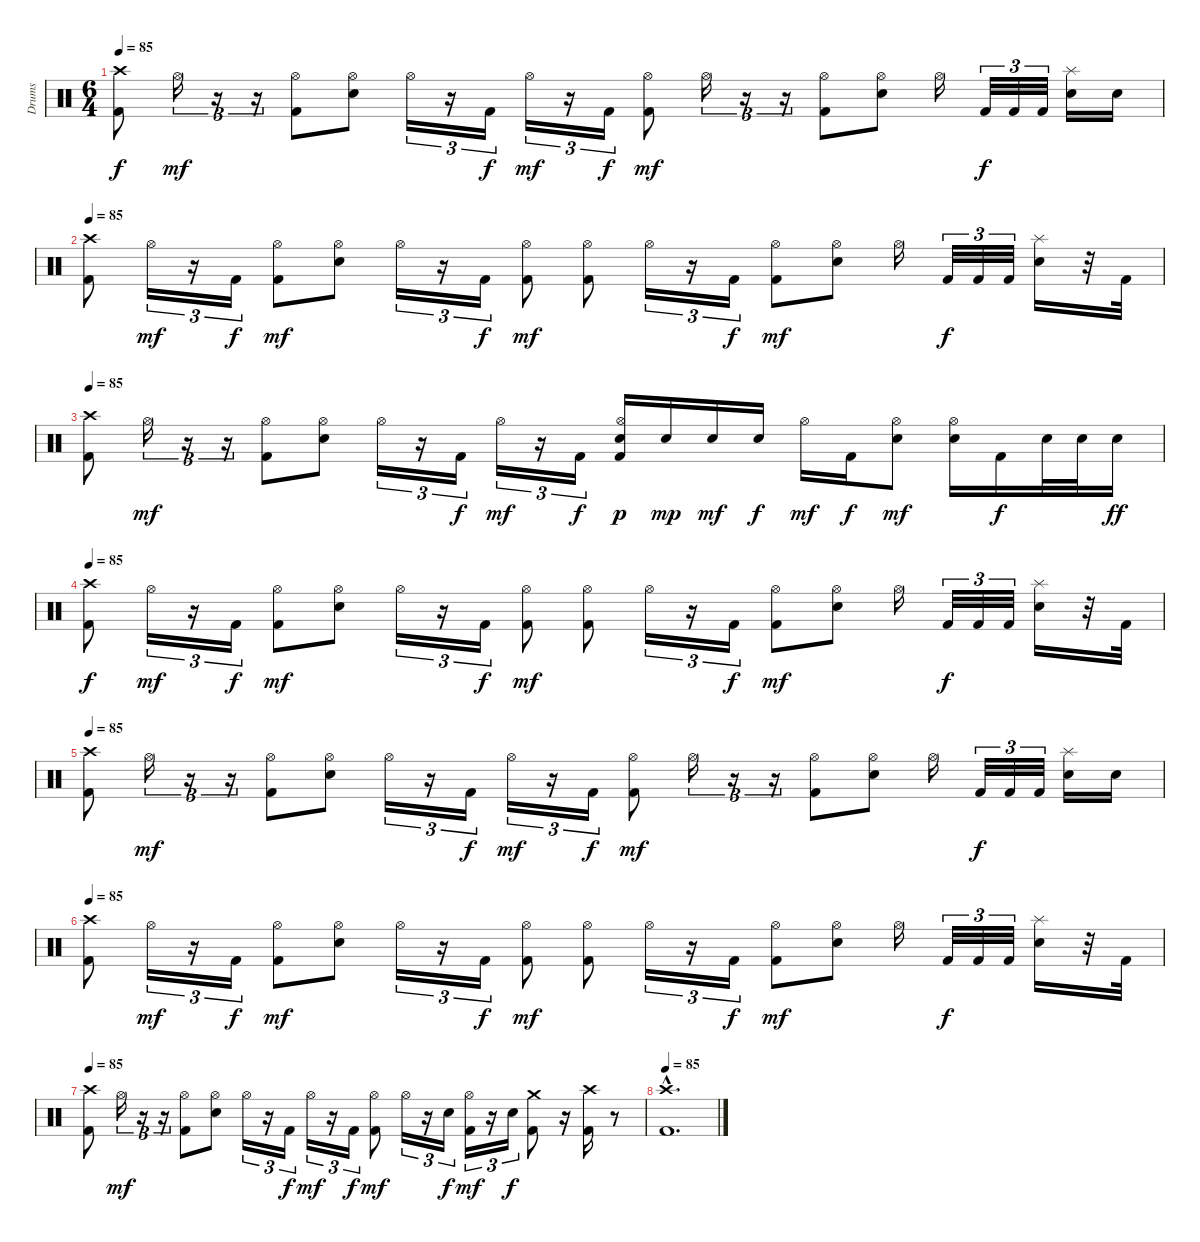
\track ("Drums" "Drums") {instrument percussion}
\staff {score}
\articulation defaults
\ts (6 4)
\tempo 85
\clef neutral
\ks c
("Crash high (hit)" "Kick (hit) 2").8{dy f} "Hi-Hat (open)".16{tu (3 2) dy mf} r.16{tu (3 2)} r.16{tu (3 2)} ("Hi-Hat (open)" "Kick (hit) 2").8 ("Hi-Hat (open)" "Electric Snare (hit)").8 "Hi-Hat (open)".16{tu (3 2)} r.16{tu (3 2)} "Kick (hit) 2".16{tu (3 2) dy f} "Hi-Hat (open)".16{tu (3 2) dy mf} r.16{tu (3 2)} "Kick (hit) 2".16{tu (3 2) dy f} ("Hi-Hat (open)" "Kick (hit) 2").8{dy mf} "Hi-Hat (open)".16{tu (3 2)} r.16{tu (3 2)} r.16{tu (3 2)} ("Hi-Hat (open)" "Kick (hit) 2").8 ("Hi-Hat (open)" "Electric Snare (hit)").8 "Hi-Hat (open)".16 "Kick (hit) 2".32{tu (3 2) dy f} "Kick (hit) 2".32{tu (3 2)} "Kick (hit) 2".32{tu (3 2)} ("Splash (hit)" "Electric Snare (hit)").16 "Electric Snare (hit)".16 |
\tempo 85
("Crash high (hit)" "Kick (hit) 2").8 "Hi-Hat (open)".16{tu (3 2) dy mf} r.16{tu (3 2)} "Kick (hit) 2".16{tu (3 2) dy f} ("Hi-Hat (open)" "Kick (hit) 2").8{dy mf} ("Hi-Hat (open)" "Electric Snare (hit)").8 "Hi-Hat (open)".16{tu (3 2)} r.16{tu (3 2)} "Kick (hit) 2".16{tu (3 2) dy f} ("Hi-Hat (open)" "Kick (hit) 2").8{dy mf} ("Hi-Hat (open)" "Kick (hit) 2").8 "Hi-Hat (open)".16{tu (3 2)} r.16{tu (3 2)} "Kick (hit) 2".16{tu (3 2) dy f} ("Hi-Hat (open)" "Kick (hit) 2").8{dy mf} ("Hi-Hat (open)" "Electric Snare (hit)").8 "Hi-Hat (open)".16 "Kick (hit) 2".32{tu (3 2) dy f} "Kick (hit) 2".32{tu (3 2)} "Kick (hit) 2".32{tu (3 2)} ("Splash (hit)" "Electric Snare (hit)").16 r.32 "Kick (hit) 2".32 |
\tempo 85
("Crash high (hit)" "Kick (hit) 2").8 "Hi-Hat (open)".16{tu (3 2) dy mf} r.16{tu (3 2)} r.16{tu (3 2)} ("Hi-Hat (open)" "Kick (hit) 2").8 ("Hi-Hat (open)" "Electric Snare (hit)").8 "Hi-Hat (open)".16{tu (3 2)} r.16{tu (3 2)} "Kick (hit) 2".16{tu (3 2) dy f} "Hi-Hat (open)".16{tu (3 2) dy mf} r.16{tu (3 2)} "Kick (hit) 2".16{tu (3 2) dy f} ("Hi-Hat (open)" "Electric Snare (hit)" "Kick (hit) 2").16{dy p} "Electric Snare (hit)".16{dy mp} "Electric Snare (hit)".16{dy mf} "Electric Snare (hit)".16{dy f} "Hi-Hat (open)".16{dy mf} "Kick (hit) 2".16{dy f} ("Hi-Hat (open)" "Electric Snare (hit)").8{dy mf} ("Hi-Hat (open)" "Electric Snare (hit)").16 "Kick (hit) 2".16{dy f} "Electric Snare (hit)".32 "Electric Snare (hit)".32 "Electric Snare (hit)".16{dy ff} |
\tempo 85
("Crash high (hit)" "Kick (hit) 2").8{dy f} "Hi-Hat (open)".16{tu (3 2) dy mf} r.16{tu (3 2)} "Kick (hit) 2".16{tu (3 2) dy f} ("Hi-Hat (open)" "Kick (hit) 2").8{dy mf} ("Hi-Hat (open)" "Electric Snare (hit)").8 "Hi-Hat (open)".16{tu (3 2)} r.16{tu (3 2)} "Kick (hit) 2".16{tu (3 2) dy f} ("Hi-Hat (open)" "Kick (hit) 2").8{dy mf} ("Hi-Hat (open)" "Kick (hit) 2").8 "Hi-Hat (open)".16{tu (3 2)} r.16{tu (3 2)} "Kick (hit) 2".16{tu (3 2) dy f} ("Hi-Hat (open)" "Kick (hit) 2").8{dy mf} ("Hi-Hat (open)" "Electric Snare (hit)").8 "Hi-Hat (open)".16 "Kick (hit) 2".32{tu (3 2) dy f} "Kick (hit) 2".32{tu (3 2)} "Kick (hit) 2".32{tu (3 2)} ("Splash (hit)" "Electric Snare (hit)").16 r.32 "Kick (hit) 2".32 |
\tempo 85
("Crash high (hit)" "Kick (hit) 2").8 "Hi-Hat (open)".16{tu (3 2) dy mf} r.16{tu (3 2)} r.16{tu (3 2)} ("Hi-Hat (open)" "Kick (hit) 2").8 ("Hi-Hat (open)" "Electric Snare (hit)").8 "Hi-Hat (open)".16{tu (3 2)} r.16{tu (3 2)} "Kick (hit) 2".16{tu (3 2) dy f} "Hi-Hat (open)".16{tu (3 2) dy mf} r.16{tu (3 2)} "Kick (hit) 2".16{tu (3 2) dy f} ("Hi-Hat (open)" "Kick (hit) 2").8{dy mf} "Hi-Hat (open)".16{tu (3 2)} r.16{tu (3 2)} r.16{tu (3 2)} ("Hi-Hat (open)" "Kick (hit) 2").8 ("Hi-Hat (open)" "Electric Snare (hit)").8 "Hi-Hat (open)".16 "Kick (hit) 2".32{tu (3 2) dy f} "Kick (hit) 2".32{tu (3 2)} "Kick (hit) 2".32{tu (3 2)} ("Splash (hit)" "Electric Snare (hit)").16 "Electric Snare (hit)".16 |
\tempo 85
("Crash high (hit)" "Kick (hit) 2").8 "Hi-Hat (open)".16{tu (3 2) dy mf} r.16{tu (3 2)} "Kick (hit) 2".16{tu (3 2) dy f} ("Hi-Hat (open)" "Kick (hit) 2").8{dy mf} ("Hi-Hat (open)" "Electric Snare (hit)").8 "Hi-Hat (open)".16{tu (3 2)} r.16{tu (3 2)} "Kick (hit) 2".16{tu (3 2) dy f} ("Hi-Hat (open)" "Kick (hit) 2").8{dy mf} ("Hi-Hat (open)" "Kick (hit) 2").8 "Hi-Hat (open)".16{tu (3 2)} r.16{tu (3 2)} "Kick (hit) 2".16{tu (3 2) dy f} ("Hi-Hat (open)" "Kick (hit) 2").8{dy mf} ("Hi-Hat (open)" "Electric Snare (hit)").8 "Hi-Hat (open)".16 "Kick (hit) 2".32{tu (3 2) dy f} "Kick (hit) 2".32{tu (3 2)} "Kick (hit) 2".32{tu (3 2)} ("Splash (hit)" "Electric Snare (hit)").16 r.32 "Kick (hit) 2".32 |
\tempo 85
("Crash high (hit)" "Kick (hit) 2").8 "Hi-Hat (open)".16{tu (3 2) dy mf} r.16{tu (3 2)} r.16{tu (3 2)} ("Hi-Hat (open)" "Kick (hit) 2").8 ("Hi-Hat (open)" "Electric Snare (hit)").8 "Hi-Hat (open)".16{tu (3 2)} r.16{tu (3 2)} "Kick (hit) 2".16{tu (3 2) dy f} "Hi-Hat (open)".16{tu (3 2) dy mf} r.16{tu (3 2)} "Kick (hit) 2".16{tu (3 2) dy f} ("Hi-Hat (open)" "Kick (hit) 2").8{dy mf} "Hi-Hat (open)".16{tu (3 2)} r.16{tu (3 2)} "Electric Snare (hit)".16{tu (3 2) dy f} ("Hi-Hat (open)" "Kick (hit) 2").16{tu (3 2) dy mf} r.16{tu (3 2)} "Electric Snare (hit)".16{tu (3 2) dy f} ("Crash medium (hit)" "Kick (hit) 2").8 r.16 ("Crash high (hit)" "Kick (hit) 2").16 r.8 |
\tempo 85
("Crash high (hit)"{hac} "Kick (hit) 2"{hac}).1{d}
